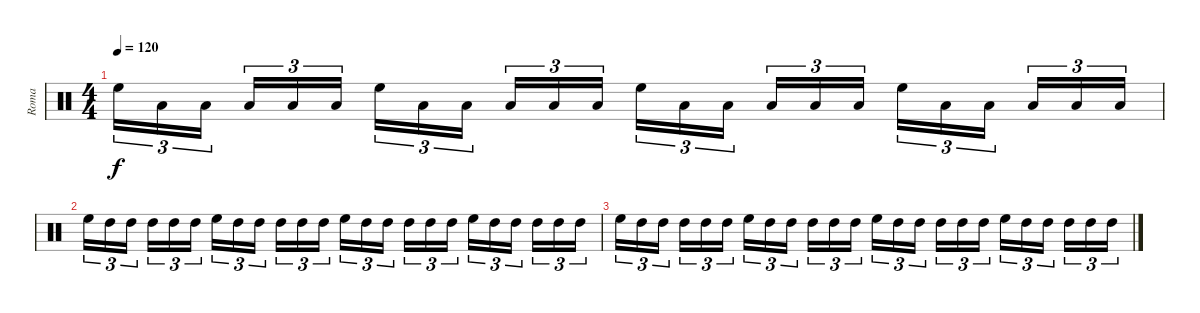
\track ("Roma" "Roma") {instrument percussion}
\staff {score}
\articulation defaults
\ts (4 4)
\tempo 120
\clef neutral
\ks c "High Floor Tom (hit)".16{tu (3 2) dy f} "Low Tom (hit)".16{tu (3 2)} "Low Tom (hit)".16{tu (3 2) beam splitsecondary} "Low Tom (hit)".16{tu (3 2)} "Low Tom (hit)".16{tu (3 2)} "Low Tom (hit)".16{tu (3 2)} "High Floor Tom (hit)".16{tu (3 2)} "Low Tom (hit)".16{tu (3 2)} "Low Tom (hit)".16{tu (3 2) beam splitsecondary} "Low Tom (hit)".16{tu (3 2)} "Low Tom (hit)".16{tu (3 2)} "Low Tom (hit)".16{tu (3 2)} "High Floor Tom (hit)".16{tu (3 2)} "Low Tom (hit)".16{tu (3 2)} "Low Tom (hit)".16{tu (3 2) beam splitsecondary} "Low Tom (hit)".16{tu (3 2)} "Low Tom (hit)".16{tu (3 2)} "Low Tom (hit)".16{tu (3 2)} "High Floor Tom (hit)".16{tu (3 2)} "Low Tom (hit)".16{tu (3 2)} "Low Tom (hit)".16{tu (3 2) beam splitsecondary} "Low Tom (hit)".16{tu (3 2)} "Low Tom (hit)".16{tu (3 2)} "Low Tom (hit)".16{tu (3 2)}
|
"High Floor Tom (hit)".16{tu (3 2)} "High Tom (hit)".16{tu (3 2)} "High Tom (hit)".16{tu (3 2) beam splitsecondary} "High Tom (hit)".16{tu (3 2)} "High Tom (hit)".16{tu (3 2)} "High Tom (hit)".16{tu (3 2)} "High Floor Tom (hit)".16{tu (3 2)} "High Tom (hit)".16{tu (3 2)} "High Tom (hit)".16{tu (3 2) beam splitsecondary} "High Tom (hit)".16{tu (3 2)} "High Tom (hit)".16{tu (3 2)} "High Tom (hit)".16{tu (3 2)} "High Floor Tom (hit)".16{tu (3 2)} "High Tom (hit)".16{tu (3 2)} "High Tom (hit)".16{tu (3 2) beam splitsecondary} "High Tom (hit)".16{tu (3 2)} "High Tom (hit)".16{tu (3 2)} "High Tom (hit)".16{tu (3 2)} "High Floor Tom (hit)".16{tu (3 2)} "High Tom (hit)".16{tu (3 2)} "High Tom (hit)".16{tu (3 2) beam splitsecondary} "High Tom (hit)".16{tu (3 2)} "High Tom (hit)".16{tu (3 2)} "High Tom (hit)".16{tu (3 2)} |
"High Floor Tom (hit)".16{tu (3 2)} "High Tom (hit)".16{tu (3 2)} "High Tom (hit)".16{tu (3 2) beam splitsecondary} "High Tom (hit)".16{tu (3 2)} "High Tom (hit)".16{tu (3 2)} "High Tom (hit)".16{tu (3 2)} "High Floor Tom (hit)".16{tu (3 2)} "High Tom (hit)".16{tu (3 2)} "High Tom (hit)".16{tu (3 2) beam splitsecondary} "High Tom (hit)".16{tu (3 2)} "High Tom (hit)".16{tu (3 2)} "High Tom (hit)".16{tu (3 2)} "High Floor Tom (hit)".16{tu (3 2)} "High Tom (hit)".16{tu (3 2)} "High Tom (hit)".16{tu (3 2) beam splitsecondary} "High Tom (hit)".16{tu (3 2)} "High Tom (hit)".16{tu (3 2)} "High Tom (hit)".16{tu (3 2)} "High Floor Tom (hit)".16{tu (3 2)} "High Tom (hit)".16{tu (3 2)} "High Tom (hit)".16{tu (3 2) beam splitsecondary} "High Tom (hit)".16{tu (3 2)} "High Tom (hit)".16{tu (3 2)} "High Tom (hit)".16{tu (3 2)}
